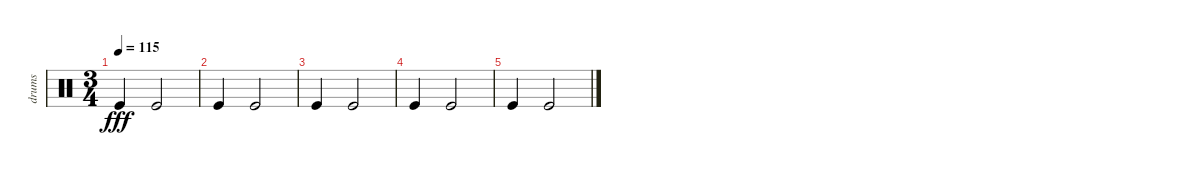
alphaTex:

\track ("drums" "drums") {instrument percussion}
\staff {score}
\articulation defaults
\ts (3 4)
\tempo 115
\clef neutral
\ks c "Kick (hit)".4{dy fff} "Kick (hit)".2
|
"Kick (hit)".4 "Kick (hit)".2 |
"Kick (hit)".4 "Kick (hit)".2 |
"Kick (hit)".4 "Kick (hit)".2 |
"Kick (hit)".4 "Kick (hit)".2
